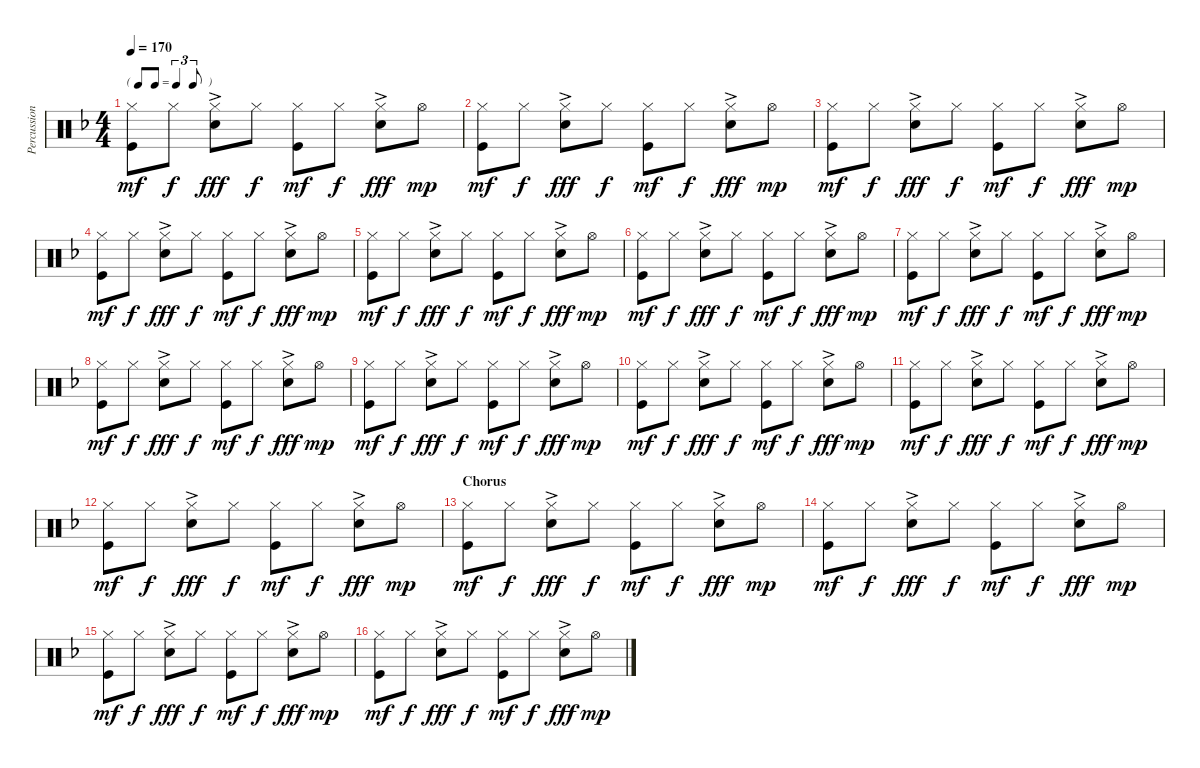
\track ("Percussion" "Percussion") {instrument percussion}
\staff {score}
\articulation defaults
\ts (4 4)
\tf triplet8th
\tempo 170
\clef neutral
\ks f
("Hi-Hat (closed)" "Kick (hit)").8{dy mf} "Hi-Hat (closed)".8{dy f} ("Hi-Hat (closed)" "Snare (hit) 2"{ac}).8{dy fff} "Hi-Hat (closed)".8{dy f} ("Hi-Hat (closed)" "Kick (hit)").8{dy mf} "Hi-Hat (closed)".8{dy f} ("Hi-Hat (closed)" "Snare (hit) 2"{ac}).8{dy fff} "Hi-Hat (open)".8{dy mp} |
("Hi-Hat (closed)" "Kick (hit)").8{dy mf} "Hi-Hat (closed)".8{dy f} ("Hi-Hat (closed)" "Snare (hit) 2"{ac}).8{dy fff} "Hi-Hat (closed)".8{dy f} ("Hi-Hat (closed)" "Kick (hit)").8{dy mf} "Hi-Hat (closed)".8{dy f} ("Hi-Hat (closed)" "Snare (hit) 2"{ac}).8{dy fff} "Hi-Hat (open)".8{dy mp} |
("Hi-Hat (closed)" "Kick (hit)").8{dy mf} "Hi-Hat (closed)".8{dy f} ("Hi-Hat (closed)" "Snare (hit) 2"{ac}).8{dy fff} "Hi-Hat (closed)".8{dy f} ("Hi-Hat (closed)" "Kick (hit)").8{dy mf} "Hi-Hat (closed)".8{dy f} ("Hi-Hat (closed)" "Snare (hit) 2"{ac}).8{dy fff} "Hi-Hat (open)".8{dy mp} |
("Hi-Hat (closed)" "Kick (hit)").8{dy mf} "Hi-Hat (closed)".8{dy f} ("Hi-Hat (closed)" "Snare (hit) 2"{ac}).8{dy fff} "Hi-Hat (closed)".8{dy f} ("Hi-Hat (closed)" "Kick (hit)").8{dy mf} "Hi-Hat (closed)".8{dy f} ("Hi-Hat (closed)" "Snare (hit) 2"{ac}).8{dy fff} "Hi-Hat (open)".8{dy mp} |
("Hi-Hat (closed)" "Kick (hit)").8{dy mf} "Hi-Hat (closed)".8{dy f} ("Hi-Hat (closed)" "Snare (hit) 2"{ac}).8{dy fff} "Hi-Hat (closed)".8{dy f} ("Hi-Hat (closed)" "Kick (hit)").8{dy mf} "Hi-Hat (closed)".8{dy f} ("Hi-Hat (closed)" "Snare (hit) 2"{ac}).8{dy fff} "Hi-Hat (open)".8{dy mp} |
("Hi-Hat (closed)" "Kick (hit)").8{dy mf} "Hi-Hat (closed)".8{dy f} ("Hi-Hat (closed)" "Snare (hit) 2"{ac}).8{dy fff} "Hi-Hat (closed)".8{dy f} ("Hi-Hat (closed)" "Kick (hit)").8{dy mf} "Hi-Hat (closed)".8{dy f} ("Hi-Hat (closed)" "Snare (hit) 2"{ac}).8{dy fff} "Hi-Hat (open)".8{dy mp} |
("Hi-Hat (closed)" "Kick (hit)").8{dy mf} "Hi-Hat (closed)".8{dy f} ("Hi-Hat (closed)" "Snare (hit) 2"{ac}).8{dy fff} "Hi-Hat (closed)".8{dy f} ("Hi-Hat (closed)" "Kick (hit)").8{dy mf} "Hi-Hat (closed)".8{dy f} ("Hi-Hat (closed)" "Snare (hit) 2"{ac}).8{dy fff} "Hi-Hat (open)".8{dy mp} |
("Hi-Hat (closed)" "Kick (hit)").8{dy mf} "Hi-Hat (closed)".8{dy f} ("Hi-Hat (closed)" "Snare (hit) 2"{ac}).8{dy fff} "Hi-Hat (closed)".8{dy f} ("Hi-Hat (closed)" "Kick (hit)").8{dy mf} "Hi-Hat (closed)".8{dy f} ("Hi-Hat (closed)" "Snare (hit) 2"{ac}).8{dy fff} "Hi-Hat (open)".8{dy mp} |
("Hi-Hat (closed)" "Kick (hit)").8{dy mf} "Hi-Hat (closed)".8{dy f} ("Hi-Hat (closed)" "Snare (hit) 2"{ac}).8{dy fff} "Hi-Hat (closed)".8{dy f} ("Hi-Hat (closed)" "Kick (hit)").8{dy mf} "Hi-Hat (closed)".8{dy f} ("Hi-Hat (closed)" "Snare (hit) 2"{ac}).8{dy fff} "Hi-Hat (open)".8{dy mp} |
("Hi-Hat (closed)" "Kick (hit)").8{dy mf} "Hi-Hat (closed)".8{dy f} ("Hi-Hat (closed)" "Snare (hit) 2"{ac}).8{dy fff} "Hi-Hat (closed)".8{dy f} ("Hi-Hat (closed)" "Kick (hit)").8{dy mf} "Hi-Hat (closed)".8{dy f} ("Hi-Hat (closed)" "Snare (hit) 2"{ac}).8{dy fff} "Hi-Hat (open)".8{dy mp} |
("Hi-Hat (closed)" "Kick (hit)").8{dy mf} "Hi-Hat (closed)".8{dy f} ("Hi-Hat (closed)" "Snare (hit) 2"{ac}).8{dy fff} "Hi-Hat (closed)".8{dy f} ("Hi-Hat (closed)" "Kick (hit)").8{dy mf} "Hi-Hat (closed)".8{dy f} ("Hi-Hat (closed)" "Snare (hit) 2"{ac}).8{dy fff} "Hi-Hat (open)".8{dy mp} |
("Hi-Hat (closed)" "Kick (hit)").8{dy mf} "Hi-Hat (closed)".8{dy f} ("Hi-Hat (closed)" "Snare (hit) 2"{ac}).8{dy fff} "Hi-Hat (closed)".8{dy f} ("Hi-Hat (closed)" "Kick (hit)").8{dy mf} "Hi-Hat (closed)".8{dy f} ("Hi-Hat (closed)" "Snare (hit) 2"{ac}).8{dy fff} "Hi-Hat (open)".8{dy mp} |
\section ("" "Chorus")
("Hi-Hat (closed)" "Kick (hit)").8{dy mf} "Hi-Hat (closed)".8{dy f} ("Hi-Hat (closed)" "Snare (hit) 2"{ac}).8{dy fff} "Hi-Hat (closed)".8{dy f} ("Hi-Hat (closed)" "Kick (hit)").8{dy mf} "Hi-Hat (closed)".8{dy f} ("Hi-Hat (closed)" "Snare (hit) 2"{ac}).8{dy fff} "Hi-Hat (open)".8{dy mp} |
("Hi-Hat (closed)" "Kick (hit)").8{dy mf} "Hi-Hat (closed)".8{dy f} ("Hi-Hat (closed)" "Snare (hit) 2"{ac}).8{dy fff} "Hi-Hat (closed)".8{dy f} ("Hi-Hat (closed)" "Kick (hit)").8{dy mf} "Hi-Hat (closed)".8{dy f} ("Hi-Hat (closed)" "Snare (hit) 2"{ac}).8{dy fff} "Hi-Hat (open)".8{dy mp} |
("Hi-Hat (closed)" "Kick (hit)").8{dy mf} "Hi-Hat (closed)".8{dy f} ("Hi-Hat (closed)" "Snare (hit) 2"{ac}).8{dy fff} "Hi-Hat (closed)".8{dy f} ("Hi-Hat (closed)" "Kick (hit)").8{dy mf} "Hi-Hat (closed)".8{dy f} ("Hi-Hat (closed)" "Snare (hit) 2"{ac}).8{dy fff} "Hi-Hat (open)".8{dy mp} |
("Hi-Hat (closed)" "Kick (hit)").8{dy mf} "Hi-Hat (closed)".8{dy f} ("Hi-Hat (closed)" "Snare (hit) 2"{ac}).8{dy fff} "Hi-Hat (closed)".8{dy f} ("Hi-Hat (closed)" "Kick (hit)").8{dy mf} "Hi-Hat (closed)".8{dy f} ("Hi-Hat (closed)" "Snare (hit) 2"{ac}).8{dy fff} "Hi-Hat (open)".8{dy mp}
